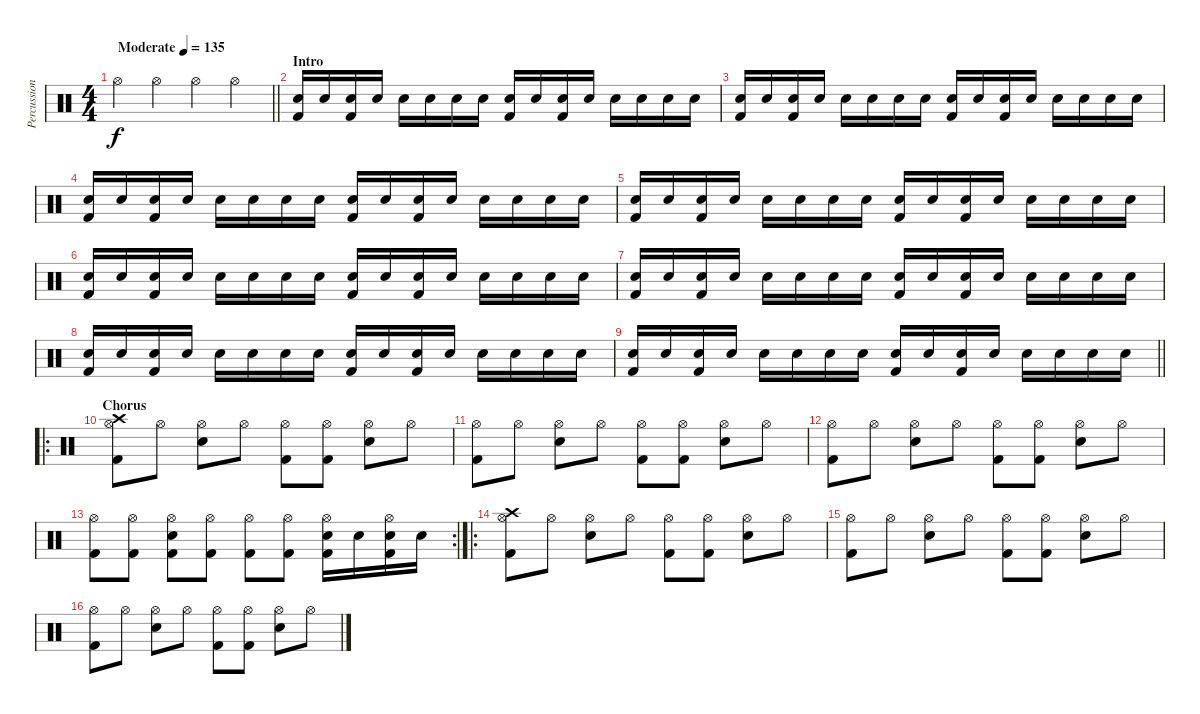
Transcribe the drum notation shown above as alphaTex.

\track ("Percussion" "Percussion") {instrument percussion}
\staff {score}
\articulation defaults
\ts (4 4)
\tempo (135 "Moderate")
\clef neutral
\barLineRight lightlight
\ks c "Hi-Hat (open)".4{dy f} "Hi-Hat (open)".4 "Hi-Hat (open)".4 "Hi-Hat (open)".4
|
\section ("" "Intro")
("Kick (hit) 2" "Snare (hit) 2").16 "Snare (hit) 2".16 ("Kick (hit) 2" "Snare (hit) 2").16 "Snare (hit) 2".16 "Snare (hit) 2".16 "Snare (hit) 2".16 "Snare (hit) 2".16 "Snare (hit) 2".16 ("Kick (hit) 2" "Snare (hit) 2").16 "Snare (hit) 2".16 ("Kick (hit) 2" "Snare (hit) 2").16 "Snare (hit) 2".16 "Snare (hit) 2".16 "Snare (hit) 2".16 "Snare (hit) 2".16 "Snare (hit) 2".16 |
("Kick (hit) 2" "Snare (hit) 2").16 "Snare (hit) 2".16 ("Kick (hit) 2" "Snare (hit) 2").16 "Snare (hit) 2".16 "Snare (hit) 2".16 "Snare (hit) 2".16 "Snare (hit) 2".16 "Snare (hit) 2".16 ("Kick (hit) 2" "Snare (hit) 2").16 "Snare (hit) 2".16 ("Kick (hit) 2" "Snare (hit) 2").16 "Snare (hit) 2".16 "Snare (hit) 2".16 "Snare (hit) 2".16 "Snare (hit) 2".16 "Snare (hit) 2".16 |
("Kick (hit) 2" "Snare (hit) 2").16 "Snare (hit) 2".16 ("Kick (hit) 2" "Snare (hit) 2").16 "Snare (hit) 2".16 "Snare (hit) 2".16 "Snare (hit) 2".16 "Snare (hit) 2".16 "Snare (hit) 2".16 ("Kick (hit) 2" "Snare (hit) 2").16 "Snare (hit) 2".16 ("Kick (hit) 2" "Snare (hit) 2").16 "Snare (hit) 2".16 "Snare (hit) 2".16 "Snare (hit) 2".16 "Snare (hit) 2".16 "Snare (hit) 2".16 |
("Kick (hit) 2" "Snare (hit) 2").16 "Snare (hit) 2".16 ("Kick (hit) 2" "Snare (hit) 2").16 "Snare (hit) 2".16 "Snare (hit) 2".16 "Snare (hit) 2".16 "Snare (hit) 2".16 "Snare (hit) 2".16 ("Kick (hit) 2" "Snare (hit) 2").16 "Snare (hit) 2".16 ("Kick (hit) 2" "Snare (hit) 2").16 "Snare (hit) 2".16 "Snare (hit) 2".16 "Snare (hit) 2".16 "Snare (hit) 2".16 "Snare (hit) 2".16 |
("Kick (hit) 2" "Snare (hit) 2").16 "Snare (hit) 2".16 ("Kick (hit) 2" "Snare (hit) 2").16 "Snare (hit) 2".16 "Snare (hit) 2".16 "Snare (hit) 2".16 "Snare (hit) 2".16 "Snare (hit) 2".16 ("Kick (hit) 2" "Snare (hit) 2").16 "Snare (hit) 2".16 ("Kick (hit) 2" "Snare (hit) 2").16 "Snare (hit) 2".16 "Snare (hit) 2".16 "Snare (hit) 2".16 "Snare (hit) 2".16 "Snare (hit) 2".16 |
("Kick (hit) 2" "Snare (hit) 2").16 "Snare (hit) 2".16 ("Kick (hit) 2" "Snare (hit) 2").16 "Snare (hit) 2".16 "Snare (hit) 2".16 "Snare (hit) 2".16 "Snare (hit) 2".16 "Snare (hit) 2".16 ("Kick (hit) 2" "Snare (hit) 2").16 "Snare (hit) 2".16 ("Kick (hit) 2" "Snare (hit) 2").16 "Snare (hit) 2".16 "Snare (hit) 2".16 "Snare (hit) 2".16 "Snare (hit) 2".16 "Snare (hit) 2".16 |
("Kick (hit) 2" "Snare (hit) 2").16 "Snare (hit) 2".16 ("Kick (hit) 2" "Snare (hit) 2").16 "Snare (hit) 2".16 "Snare (hit) 2".16 "Snare (hit) 2".16 "Snare (hit) 2".16 "Snare (hit) 2".16 ("Kick (hit) 2" "Snare (hit) 2").16 "Snare (hit) 2".16 ("Kick (hit) 2" "Snare (hit) 2").16 "Snare (hit) 2".16 "Snare (hit) 2".16 "Snare (hit) 2".16 "Snare (hit) 2".16 "Snare (hit) 2".16 |
\barLineRight lightlight
("Kick (hit) 2" "Snare (hit) 2").16 "Snare (hit) 2".16 ("Kick (hit) 2" "Snare (hit) 2").16 "Snare (hit) 2".16 "Snare (hit) 2".16 "Snare (hit) 2".16 "Snare (hit) 2".16 "Snare (hit) 2".16 ("Kick (hit) 2" "Snare (hit) 2").16 "Snare (hit) 2".16 ("Kick (hit) 2" "Snare (hit) 2").16 "Snare (hit) 2".16 "Snare (hit) 2".16 "Snare (hit) 2".16 "Snare (hit) 2".16 "Snare (hit) 2".16 |
\ro
\section ("" "Chorus")
("Crash high (hit)" "Hi-Hat (open)" "Kick (hit) 2").8 "Hi-Hat (open)".8 ("Hi-Hat (open)" "Electric Snare (hit)").8 "Hi-Hat (open)".8 ("Hi-Hat (open)" "Kick (hit) 2").8 ("Hi-Hat (open)" "Kick (hit) 2").8 ("Hi-Hat (open)" "Electric Snare (hit)").8 "Hi-Hat (open)".8 |
("Hi-Hat (open)" "Kick (hit) 2").8 "Hi-Hat (open)".8 ("Hi-Hat (open)" "Electric Snare (hit)").8 "Hi-Hat (open)".8 ("Hi-Hat (open)" "Kick (hit) 2").8 ("Hi-Hat (open)" "Kick (hit) 2").8 ("Hi-Hat (open)" "Electric Snare (hit)").8 "Hi-Hat (open)".8 |
("Hi-Hat (open)" "Kick (hit) 2").8 "Hi-Hat (open)".8 ("Hi-Hat (open)" "Electric Snare (hit)").8 "Hi-Hat (open)".8 ("Hi-Hat (open)" "Kick (hit) 2").8 ("Hi-Hat (open)" "Kick (hit) 2").8 ("Hi-Hat (open)" "Electric Snare (hit)").8 "Hi-Hat (open)".8 |
\rc 2
("Kick (hit) 2" "Hi-Hat (open)").8 ("Kick (hit) 2" "Hi-Hat (open)").8 ("Kick (hit) 2" "Electric Snare (hit)" "Hi-Hat (open)").8 ("Kick (hit) 2" "Hi-Hat (open)").8 ("Kick (hit) 2" "Hi-Hat (open)").8 ("Kick (hit) 2" "Hi-Hat (open)").8 ("Kick (hit) 2" "Electric Snare (hit)" "Hi-Hat (open)").16 "Electric Snare (hit)".16 ("Kick (hit) 2" "Electric Snare (hit)" "Hi-Hat (open)").16 "Electric Snare (hit)".16 |
\ro
("Crash high (hit)" "Hi-Hat (open)" "Kick (hit) 2").8 "Hi-Hat (open)".8 ("Hi-Hat (open)" "Electric Snare (hit)").8 "Hi-Hat (open)".8 ("Hi-Hat (open)" "Kick (hit) 2").8 ("Hi-Hat (open)" "Kick (hit) 2").8 ("Hi-Hat (open)" "Electric Snare (hit)").8 "Hi-Hat (open)".8 |
("Hi-Hat (open)" "Kick (hit) 2").8 "Hi-Hat (open)".8 ("Hi-Hat (open)" "Electric Snare (hit)").8 "Hi-Hat (open)".8 ("Hi-Hat (open)" "Kick (hit) 2").8 ("Hi-Hat (open)" "Kick (hit) 2").8 ("Hi-Hat (open)" "Electric Snare (hit)").8 "Hi-Hat (open)".8 |
("Hi-Hat (open)" "Kick (hit) 2").8 "Hi-Hat (open)".8 ("Hi-Hat (open)" "Electric Snare (hit)").8 "Hi-Hat (open)".8 ("Hi-Hat (open)" "Kick (hit) 2").8 ("Hi-Hat (open)" "Kick (hit) 2").8 ("Hi-Hat (open)" "Electric Snare (hit)").8 "Hi-Hat (open)".8
